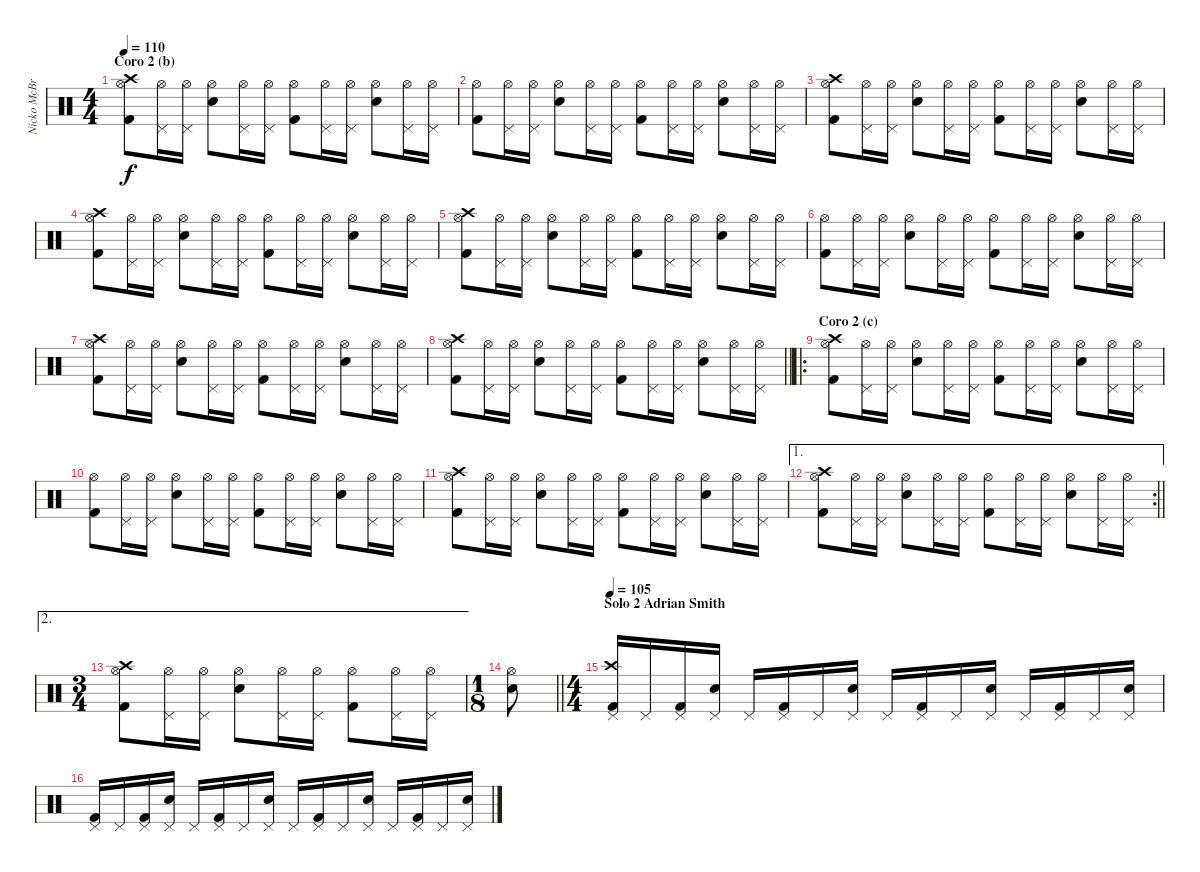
\track ("Nicko McBrain" "Nicko McBr") {instrument percussion}
\staff {score}
\articulation defaults
\ts (4 4)
\section ("" "Coro 2 (b)")
\tempo 110
\clef neutral
\ks c
("Kick (hit) 2" "Hi-Hat (open)" "Crash high (hit)").8{dy f} ("Pedal Hi-Hat (hit)" "Hi-Hat (open)").16 ("Pedal Hi-Hat (hit)" "Hi-Hat (open)").16 ("Snare (hit) 2" "Hi-Hat (open)").8 ("Pedal Hi-Hat (hit)" "Hi-Hat (open)").16 ("Pedal Hi-Hat (hit)" "Hi-Hat (open)").16 ("Kick (hit) 2" "Hi-Hat (open)").8 ("Pedal Hi-Hat (hit)" "Hi-Hat (open)").16 ("Pedal Hi-Hat (hit)" "Hi-Hat (open)").16 ("Snare (hit) 2" "Hi-Hat (open)").8 ("Pedal Hi-Hat (hit)" "Hi-Hat (open)").16 ("Pedal Hi-Hat (hit)" "Hi-Hat (open)").16 |
("Kick (hit) 2" "Hi-Hat (open)").8 ("Pedal Hi-Hat (hit)" "Hi-Hat (open)").16 ("Pedal Hi-Hat (hit)" "Hi-Hat (open)").16 ("Snare (hit) 2" "Hi-Hat (open)").8 ("Pedal Hi-Hat (hit)" "Hi-Hat (open)").16 ("Pedal Hi-Hat (hit)" "Hi-Hat (open)").16 ("Kick (hit) 2" "Hi-Hat (open)").8 ("Pedal Hi-Hat (hit)" "Hi-Hat (open)").16 ("Pedal Hi-Hat (hit)" "Hi-Hat (open)").16 ("Snare (hit) 2" "Hi-Hat (open)").8 ("Pedal Hi-Hat (hit)" "Hi-Hat (open)").16 ("Pedal Hi-Hat (hit)" "Hi-Hat (open)").16 |
("Kick (hit) 2" "Hi-Hat (open)" "Crash high (hit)").8 ("Pedal Hi-Hat (hit)" "Hi-Hat (open)").16 ("Pedal Hi-Hat (hit)" "Hi-Hat (open)").16 ("Snare (hit) 2" "Hi-Hat (open)").8 ("Pedal Hi-Hat (hit)" "Hi-Hat (open)").16 ("Pedal Hi-Hat (hit)" "Hi-Hat (open)").16 ("Kick (hit) 2" "Hi-Hat (open)").8 ("Pedal Hi-Hat (hit)" "Hi-Hat (open)").16 ("Pedal Hi-Hat (hit)" "Hi-Hat (open)").16 ("Snare (hit) 2" "Hi-Hat (open)").8 ("Pedal Hi-Hat (hit)" "Hi-Hat (open)").16 ("Pedal Hi-Hat (hit)" "Hi-Hat (open)").16 |
("Kick (hit) 2" "Hi-Hat (open)" "Crash high (hit)").8 ("Pedal Hi-Hat (hit)" "Hi-Hat (open)").16 ("Pedal Hi-Hat (hit)" "Hi-Hat (open)").16 ("Snare (hit) 2" "Hi-Hat (open)").8 ("Pedal Hi-Hat (hit)" "Hi-Hat (open)").16 ("Pedal Hi-Hat (hit)" "Hi-Hat (open)").16 ("Kick (hit) 2" "Hi-Hat (open)").8 ("Pedal Hi-Hat (hit)" "Hi-Hat (open)").16 ("Pedal Hi-Hat (hit)" "Hi-Hat (open)").16 ("Snare (hit) 2" "Hi-Hat (open)").8 ("Pedal Hi-Hat (hit)" "Hi-Hat (open)").16 ("Pedal Hi-Hat (hit)" "Hi-Hat (open)").16 |
("Kick (hit) 2" "Hi-Hat (open)" "Crash high (hit)").8 ("Pedal Hi-Hat (hit)" "Hi-Hat (open)").16 ("Pedal Hi-Hat (hit)" "Hi-Hat (open)").16 ("Snare (hit) 2" "Hi-Hat (open)").8 ("Pedal Hi-Hat (hit)" "Hi-Hat (open)").16 ("Pedal Hi-Hat (hit)" "Hi-Hat (open)").16 ("Kick (hit) 2" "Hi-Hat (open)").8 ("Pedal Hi-Hat (hit)" "Hi-Hat (open)").16 ("Pedal Hi-Hat (hit)" "Hi-Hat (open)").16 ("Snare (hit) 2" "Hi-Hat (open)").8 ("Pedal Hi-Hat (hit)" "Hi-Hat (open)").16 ("Pedal Hi-Hat (hit)" "Hi-Hat (open)").16 |
("Kick (hit) 2" "Hi-Hat (open)").8 ("Pedal Hi-Hat (hit)" "Hi-Hat (open)").16 ("Pedal Hi-Hat (hit)" "Hi-Hat (open)").16 ("Snare (hit) 2" "Hi-Hat (open)").8 ("Pedal Hi-Hat (hit)" "Hi-Hat (open)").16 ("Pedal Hi-Hat (hit)" "Hi-Hat (open)").16 ("Kick (hit) 2" "Hi-Hat (open)").8 ("Pedal Hi-Hat (hit)" "Hi-Hat (open)").16 ("Pedal Hi-Hat (hit)" "Hi-Hat (open)").16 ("Snare (hit) 2" "Hi-Hat (open)").8 ("Pedal Hi-Hat (hit)" "Hi-Hat (open)").16 ("Pedal Hi-Hat (hit)" "Hi-Hat (open)").16 |
("Kick (hit) 2" "Hi-Hat (open)" "Crash high (hit)").8 ("Pedal Hi-Hat (hit)" "Hi-Hat (open)").16 ("Pedal Hi-Hat (hit)" "Hi-Hat (open)").16 ("Snare (hit) 2" "Hi-Hat (open)").8 ("Pedal Hi-Hat (hit)" "Hi-Hat (open)").16 ("Pedal Hi-Hat (hit)" "Hi-Hat (open)").16 ("Kick (hit) 2" "Hi-Hat (open)").8 ("Pedal Hi-Hat (hit)" "Hi-Hat (open)").16 ("Pedal Hi-Hat (hit)" "Hi-Hat (open)").16 ("Snare (hit) 2" "Hi-Hat (open)").8 ("Pedal Hi-Hat (hit)" "Hi-Hat (open)").16 ("Pedal Hi-Hat (hit)" "Hi-Hat (open)").16 |
\barLineRight lightlight
("Kick (hit) 2" "Hi-Hat (open)" "Crash high (hit)").8 ("Pedal Hi-Hat (hit)" "Hi-Hat (open)").16 ("Pedal Hi-Hat (hit)" "Hi-Hat (open)").16 ("Snare (hit) 2" "Hi-Hat (open)").8 ("Pedal Hi-Hat (hit)" "Hi-Hat (open)").16 ("Pedal Hi-Hat (hit)" "Hi-Hat (open)").16 ("Kick (hit) 2" "Hi-Hat (open)").8 ("Pedal Hi-Hat (hit)" "Hi-Hat (open)").16 ("Pedal Hi-Hat (hit)" "Hi-Hat (open)").16 ("Snare (hit) 2" "Hi-Hat (open)").8 ("Pedal Hi-Hat (hit)" "Hi-Hat (open)").16 ("Pedal Hi-Hat (hit)" "Hi-Hat (open)").16 |
\ro
\section ("" "Coro 2 (c)")
("Kick (hit) 2" "Hi-Hat (open)" "Crash high (hit)").8 ("Pedal Hi-Hat (hit)" "Hi-Hat (open)").16 ("Pedal Hi-Hat (hit)" "Hi-Hat (open)").16 ("Snare (hit) 2" "Hi-Hat (open)").8 ("Pedal Hi-Hat (hit)" "Hi-Hat (open)").16 ("Pedal Hi-Hat (hit)" "Hi-Hat (open)").16 ("Kick (hit) 2" "Hi-Hat (open)").8 ("Pedal Hi-Hat (hit)" "Hi-Hat (open)").16 ("Pedal Hi-Hat (hit)" "Hi-Hat (open)").16 ("Snare (hit) 2" "Hi-Hat (open)").8 ("Pedal Hi-Hat (hit)" "Hi-Hat (open)").16 ("Pedal Hi-Hat (hit)" "Hi-Hat (open)").16 |
("Kick (hit) 2" "Hi-Hat (open)").8 ("Pedal Hi-Hat (hit)" "Hi-Hat (open)").16 ("Pedal Hi-Hat (hit)" "Hi-Hat (open)").16 ("Snare (hit) 2" "Hi-Hat (open)").8 ("Pedal Hi-Hat (hit)" "Hi-Hat (open)").16 ("Pedal Hi-Hat (hit)" "Hi-Hat (open)").16 ("Kick (hit) 2" "Hi-Hat (open)").8 ("Pedal Hi-Hat (hit)" "Hi-Hat (open)").16 ("Pedal Hi-Hat (hit)" "Hi-Hat (open)").16 ("Snare (hit) 2" "Hi-Hat (open)").8 ("Pedal Hi-Hat (hit)" "Hi-Hat (open)").16 ("Pedal Hi-Hat (hit)" "Hi-Hat (open)").16 |
("Kick (hit) 2" "Hi-Hat (open)" "Crash high (hit)").8 ("Pedal Hi-Hat (hit)" "Hi-Hat (open)").16 ("Pedal Hi-Hat (hit)" "Hi-Hat (open)").16 ("Snare (hit) 2" "Hi-Hat (open)").8 ("Pedal Hi-Hat (hit)" "Hi-Hat (open)").16 ("Pedal Hi-Hat (hit)" "Hi-Hat (open)").16 ("Kick (hit) 2" "Hi-Hat (open)").8 ("Pedal Hi-Hat (hit)" "Hi-Hat (open)").16 ("Pedal Hi-Hat (hit)" "Hi-Hat (open)").16 ("Snare (hit) 2" "Hi-Hat (open)").8 ("Pedal Hi-Hat (hit)" "Hi-Hat (open)").16 ("Pedal Hi-Hat (hit)" "Hi-Hat (open)").16 |
\ae 1
\rc 2
\barLineRight lightlight
("Kick (hit) 2" "Hi-Hat (open)" "Crash high (hit)").8 ("Pedal Hi-Hat (hit)" "Hi-Hat (open)").16 ("Pedal Hi-Hat (hit)" "Hi-Hat (open)").16 ("Snare (hit) 2" "Hi-Hat (open)").8 ("Pedal Hi-Hat (hit)" "Hi-Hat (open)").16 ("Pedal Hi-Hat (hit)" "Hi-Hat (open)").16 ("Kick (hit) 2" "Hi-Hat (open)").8 ("Pedal Hi-Hat (hit)" "Hi-Hat (open)").16 ("Pedal Hi-Hat (hit)" "Hi-Hat (open)").16 ("Snare (hit) 2" "Hi-Hat (open)").8 ("Pedal Hi-Hat (hit)" "Hi-Hat (open)").16 ("Pedal Hi-Hat (hit)" "Hi-Hat (open)").16 |
\ae 2
\ts (3 4)
("Kick (hit) 2" "Hi-Hat (open)" "Crash high (hit)").8 ("Pedal Hi-Hat (hit)" "Hi-Hat (open)").16 ("Pedal Hi-Hat (hit)" "Hi-Hat (open)").16 ("Snare (hit) 2" "Hi-Hat (open)").8 ("Pedal Hi-Hat (hit)" "Hi-Hat (open)").16 ("Pedal Hi-Hat (hit)" "Hi-Hat (open)").16 ("Kick (hit) 2" "Hi-Hat (open)").8 ("Pedal Hi-Hat (hit)" "Hi-Hat (open)").16 ("Pedal Hi-Hat (hit)" "Hi-Hat (open)").16 |
\ts (1 8)
\barLineRight lightlight
("Snare (hit) 2" "Hi-Hat (open)").8 |
\ts (4 4)
\section ("" "Solo 2 Adrian Smith")
\tempo 105
("Kick (hit) 2" "Pedal Hi-Hat (hit)" "Crash high (hit)").16 "Pedal Hi-Hat (hit)".16 ("Kick (hit) 2" "Pedal Hi-Hat (hit)").16 ("Snare (hit) 2" "Pedal Hi-Hat (hit)").16 "Pedal Hi-Hat (hit)".16 ("Kick (hit) 2" "Pedal Hi-Hat (hit)").16 "Pedal Hi-Hat (hit)".16 ("Snare (hit) 2" "Pedal Hi-Hat (hit)").16 "Pedal Hi-Hat (hit)".16 ("Kick (hit) 2" "Pedal Hi-Hat (hit)").16 "Pedal Hi-Hat (hit)".16 ("Snare (hit) 2" "Pedal Hi-Hat (hit)").16 "Pedal Hi-Hat (hit)".16 ("Kick (hit) 2" "Pedal Hi-Hat (hit)").16 "Pedal Hi-Hat (hit)".16 ("Snare (hit) 2" "Pedal Hi-Hat (hit)").16 |
("Kick (hit) 2" "Pedal Hi-Hat (hit)").16 "Pedal Hi-Hat (hit)".16 ("Kick (hit) 2" "Pedal Hi-Hat (hit)").16 ("Snare (hit) 2" "Pedal Hi-Hat (hit)").16 "Pedal Hi-Hat (hit)".16 ("Kick (hit) 2" "Pedal Hi-Hat (hit)").16 "Pedal Hi-Hat (hit)".16 ("Snare (hit) 2" "Pedal Hi-Hat (hit)").16 "Pedal Hi-Hat (hit)".16 ("Kick (hit) 2" "Pedal Hi-Hat (hit)").16 "Pedal Hi-Hat (hit)".16 ("Snare (hit) 2" "Pedal Hi-Hat (hit)").16 "Pedal Hi-Hat (hit)".16 ("Kick (hit) 2" "Pedal Hi-Hat (hit)").16 "Pedal Hi-Hat (hit)".16 ("Snare (hit) 2" "Pedal Hi-Hat (hit)").16
